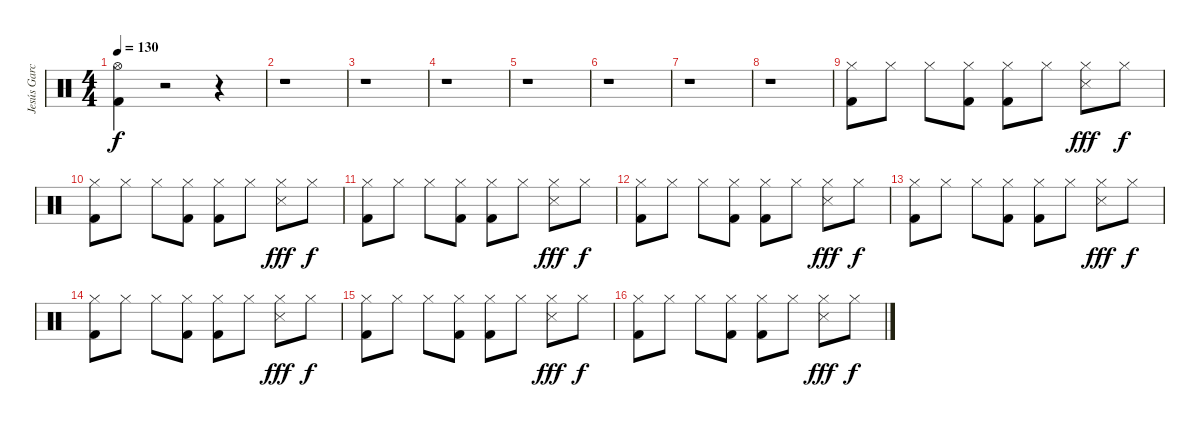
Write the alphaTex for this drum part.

\track ("Jesús García (batería)" "Jesús Garc") {instrument percussion}
\staff {score}
\articulation defaults
\ts (4 4)
\tempo 130
\clef neutral
\ks c
("Kick (hit) 2" "Hi-Hat (open)").4{dy f} r.2 r.4 |
r.1 |
r.1 |
r.1 |
r.1 |
r.1 |
r.1 |
r.1 |
("Hi-Hat (closed)" "Kick (hit) 2").8 "Hi-Hat (closed)".8 "Hi-Hat (closed)".8 ("Kick (hit) 2" "Hi-Hat (closed)").8 ("Kick (hit) 2" "Hi-Hat (closed)").8 "Hi-Hat (closed)".8 ("Hi-Hat (closed)" "Snare (side stick) 3").8{dy fff} "Hi-Hat (closed)".8{dy f} |
("Hi-Hat (closed)" "Kick (hit) 2").8 "Hi-Hat (closed)".8 "Hi-Hat (closed)".8 ("Kick (hit) 2" "Hi-Hat (closed)").8 ("Kick (hit) 2" "Hi-Hat (closed)").8 "Hi-Hat (closed)".8 ("Hi-Hat (closed)" "Snare (side stick) 3").8{dy fff} "Hi-Hat (closed)".8{dy f} |
("Hi-Hat (closed)" "Kick (hit) 2").8 "Hi-Hat (closed)".8 "Hi-Hat (closed)".8 ("Kick (hit) 2" "Hi-Hat (closed)").8 ("Kick (hit) 2" "Hi-Hat (closed)").8 "Hi-Hat (closed)".8 ("Hi-Hat (closed)" "Snare (side stick) 3").8{dy fff} "Hi-Hat (closed)".8{dy f} |
("Hi-Hat (closed)" "Kick (hit) 2").8 "Hi-Hat (closed)".8 "Hi-Hat (closed)".8 ("Kick (hit) 2" "Hi-Hat (closed)").8 ("Kick (hit) 2" "Hi-Hat (closed)").8 "Hi-Hat (closed)".8 ("Hi-Hat (closed)" "Snare (side stick) 3").8{dy fff} "Hi-Hat (closed)".8{dy f} |
("Hi-Hat (closed)" "Kick (hit) 2").8 "Hi-Hat (closed)".8 "Hi-Hat (closed)".8 ("Kick (hit) 2" "Hi-Hat (closed)").8 ("Kick (hit) 2" "Hi-Hat (closed)").8 "Hi-Hat (closed)".8 ("Hi-Hat (closed)" "Snare (side stick) 3").8{dy fff} "Hi-Hat (closed)".8{dy f} |
("Hi-Hat (closed)" "Kick (hit) 2").8 "Hi-Hat (closed)".8 "Hi-Hat (closed)".8 ("Kick (hit) 2" "Hi-Hat (closed)").8 ("Kick (hit) 2" "Hi-Hat (closed)").8 "Hi-Hat (closed)".8 ("Hi-Hat (closed)" "Snare (side stick) 3").8{dy fff} "Hi-Hat (closed)".8{dy f} |
("Hi-Hat (closed)" "Kick (hit) 2").8 "Hi-Hat (closed)".8 "Hi-Hat (closed)".8 ("Kick (hit) 2" "Hi-Hat (closed)").8 ("Kick (hit) 2" "Hi-Hat (closed)").8 "Hi-Hat (closed)".8 ("Hi-Hat (closed)" "Snare (side stick) 3").8{dy fff} "Hi-Hat (closed)".8{dy f} |
("Hi-Hat (closed)" "Kick (hit) 2").8 "Hi-Hat (closed)".8 "Hi-Hat (closed)".8 ("Kick (hit) 2" "Hi-Hat (closed)").8 ("Kick (hit) 2" "Hi-Hat (closed)").8 "Hi-Hat (closed)".8 ("Hi-Hat (closed)" "Snare (side stick) 3").8{dy fff} "Hi-Hat (closed)".8{dy f}
